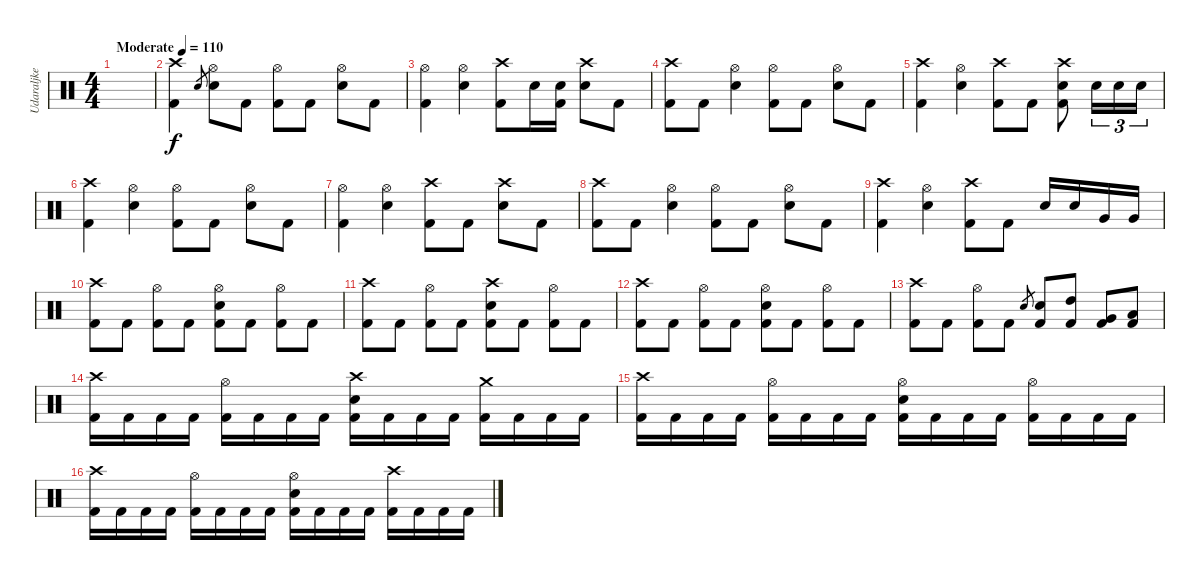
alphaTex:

\track ("Udaraljke" "Udaraljke") {instrument percussion}
\staff {score}
\articulation defaults
\ts (4 4)
\tempo (110 "Moderate")
\clef neutral
\ks c
|
("Crash high (hit)" "Kick (hit) 2").4 "Electric Snare (hit)".8{gr} ("Hi-Hat (open)" "Electric Snare (hit)").8 "Kick (hit) 2".8 ("Hi-Hat (open)" "Kick (hit) 2").8 "Kick (hit) 2".8 ("Hi-Hat (open)" "Electric Snare (hit)").8 "Kick (hit) 2".8 |
("Hi-Hat (open)" "Kick (hit) 2").4 ("Hi-Hat (open)" "Electric Snare (hit)").4 ("Crash high (hit)" "Kick (hit) 2").8 "Electric Snare (hit)".16 ("Electric Snare (hit)" "Kick (hit) 2").16 ("Crash high (hit)" "Electric Snare (hit)").8 "Kick (hit) 2".8 |
("Crash high (hit)" "Kick (hit) 2").8 "Kick (hit) 2".8 ("Hi-Hat (open)" "Electric Snare (hit)").4 ("Hi-Hat (open)" "Kick (hit) 2").8 "Kick (hit) 2".8 ("Hi-Hat (open)" "Electric Snare (hit)").8 "Kick (hit) 2".8 |
("Crash high (hit)" "Kick (hit) 2").4 ("Hi-Hat (open)" "Electric Snare (hit)").4 ("Crash high (hit)" "Kick (hit) 2").8 "Kick (hit) 2".8 ("Crash high (hit)" "Electric Snare (hit)" "Kick (hit) 2").8 "Electric Snare (hit)".16{tu (3 2)} "Electric Snare (hit)".16{tu (3 2)} "Electric Snare (hit)".16{tu (3 2)} |
("Crash high (hit)" "Kick (hit) 2").4 ("Hi-Hat (open)" "Electric Snare (hit)").4 ("Hi-Hat (open)" "Kick (hit) 2").8 "Kick (hit) 2".8 ("Hi-Hat (open)" "Electric Snare (hit)").8 "Kick (hit) 2".8 |
("Hi-Hat (open)" "Kick (hit) 2").4 ("Hi-Hat (open)" "Electric Snare (hit)").4 ("Crash high (hit)" "Kick (hit) 2").8 "Kick (hit) 2".8 ("Crash high (hit)" "Electric Snare (hit)").8 "Kick (hit) 2".8 |
("Crash high (hit)" "Kick (hit) 2").8 "Kick (hit) 2".8 ("Hi-Hat (open)" "Electric Snare (hit)").4 ("Hi-Hat (open)" "Kick (hit) 2").8 "Kick (hit) 2".8 ("Hi-Hat (open)" "Electric Snare (hit)").8 "Kick (hit) 2".8 |
("Crash high (hit)" "Kick (hit) 2").4 ("Hi-Hat (open)" "Electric Snare (hit)").4 ("Crash high (hit)" "Kick (hit) 2").8 "Kick (hit) 2".8 "Electric Snare (hit)".16 "Electric Snare (hit)".16 "Very Low Tom (hit)".16 "Very Low Tom (hit)".16 |
("Crash high (hit)" "Kick (hit) 2").8 "Kick (hit) 2".8 ("Hi-Hat (open)" "Kick (hit) 2").8 "Kick (hit) 2".8 ("Hi-Hat (open)" "Electric Snare (hit)" "Kick (hit) 2").8 "Kick (hit) 2".8 ("Hi-Hat (open)" "Kick (hit) 2").8 "Kick (hit) 2".8 |
("Crash high (hit)" "Kick (hit) 2").8 "Kick (hit) 2".8 ("Hi-Hat (open)" "Kick (hit) 2").8 "Kick (hit) 2".8 ("Crash high (hit)" "Electric Snare (hit)" "Kick (hit) 2").8 "Kick (hit) 2".8 ("Hi-Hat (open)" "Kick (hit) 2").8 "Kick (hit) 2".8 |
("Crash high (hit)" "Kick (hit) 2").8 "Kick (hit) 2".8 ("Hi-Hat (open)" "Kick (hit) 2").8 "Kick (hit) 2".8 ("Hi-Hat (open)" "Electric Snare (hit)" "Kick (hit) 2").8 "Kick (hit) 2".8 ("Hi-Hat (open)" "Kick (hit) 2").8 "Kick (hit) 2".8 |
("Crash high (hit)" "Kick (hit) 2").8 "Kick (hit) 2".8 ("Hi-Hat (open)" "Kick (hit) 2").8 "Kick (hit) 2".8 "Electric Snare (hit)".8{gr} ("Electric Snare (hit)" "Kick (hit) 2").8 ("High Tom (hit)" "Kick (hit) 2").8 ("Very Low Tom (hit)" "Kick (hit) 2").8 ("Low Tom (hit)" "Kick (hit) 2").8 |
("Crash high (hit)" "Kick (hit) 2").16 "Kick (hit) 2".16 "Kick (hit) 2".16 "Kick (hit) 2".16 ("Hi-Hat (open)" "Kick (hit) 2").16 "Kick (hit) 2".16 "Kick (hit) 2".16 "Kick (hit) 2".16 ("Crash high (hit)" "Electric Snare (hit)" "Kick (hit) 2").16 "Kick (hit) 2".16 "Kick (hit) 2".16 "Kick (hit) 2".16 ("Crash medium (hit)" "Kick (hit) 2").16 "Kick (hit) 2".16 "Kick (hit) 2".16 "Kick (hit) 2".16 |
("Crash high (hit)" "Kick (hit) 2").16 "Kick (hit) 2".16 "Kick (hit) 2".16 "Kick (hit) 2".16 ("Hi-Hat (open)" "Kick (hit) 2").16 "Kick (hit) 2".16 "Kick (hit) 2".16 "Kick (hit) 2".16 ("Hi-Hat (open)" "Electric Snare (hit)" "Kick (hit) 2").16 "Kick (hit) 2".16 "Kick (hit) 2".16 "Kick (hit) 2".16 ("Hi-Hat (open)" "Kick (hit) 2").16 "Kick (hit) 2".16 "Kick (hit) 2".16 "Kick (hit) 2".16 |
("Crash high (hit)" "Kick (hit) 2").16 "Kick (hit) 2".16 "Kick (hit) 2".16 "Kick (hit) 2".16 ("Hi-Hat (open)" "Kick (hit) 2").16 "Kick (hit) 2".16 "Kick (hit) 2".16 "Kick (hit) 2".16 ("Hi-Hat (open)" "Electric Snare (hit)" "Kick (hit) 2").16 "Kick (hit) 2".16 "Kick (hit) 2".16 "Kick (hit) 2".16 ("Crash high (hit)" "Kick (hit) 2").16 "Kick (hit) 2".16 "Kick (hit) 2".16 "Kick (hit) 2".16
